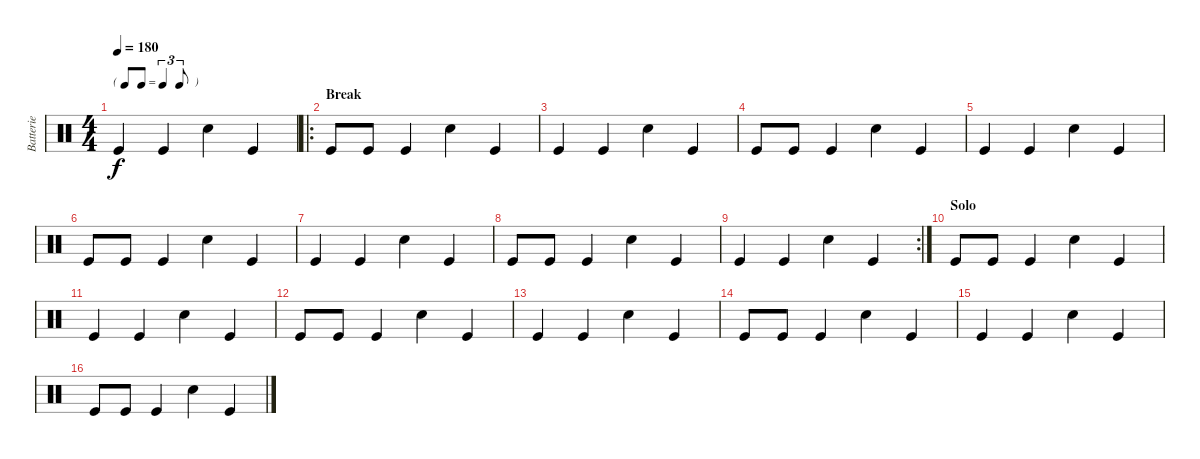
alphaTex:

\track ("Batterie" "Batterie") {instrument percussion}
\staff {score}
\articulation defaults
\ts (4 4)
\tf triplet8th
\tempo 180
\clef neutral
\ks c "Kick (hit)".4{dy f} "Kick (hit)".4 "Electric Snare (hit)".4 "Kick (hit)".4
|
\ro
\section ("" "Break")
"Kick (hit)".8 "Kick (hit)".8 "Kick (hit)".4 "Electric Snare (hit)".4 "Kick (hit)".4 |
"Kick (hit)".4 "Kick (hit)".4 "Electric Snare (hit)".4 "Kick (hit)".4 |
"Kick (hit)".8 "Kick (hit)".8 "Kick (hit)".4 "Electric Snare (hit)".4 "Kick (hit)".4 |
"Kick (hit)".4 "Kick (hit)".4 "Electric Snare (hit)".4 "Kick (hit)".4 |
"Kick (hit)".8 "Kick (hit)".8 "Kick (hit)".4 "Electric Snare (hit)".4 "Kick (hit)".4 |
"Kick (hit)".4 "Kick (hit)".4 "Electric Snare (hit)".4 "Kick (hit)".4 |
"Kick (hit)".8 "Kick (hit)".8 "Kick (hit)".4 "Electric Snare (hit)".4 "Kick (hit)".4 |
\rc 2 "Kick (hit)".4 "Kick (hit)".4 "Electric Snare (hit)".4 "Kick (hit)".4
|
\section ("" "Solo")
"Kick (hit)".8 "Kick (hit)".8 "Kick (hit)".4 "Electric Snare (hit)".4 "Kick (hit)".4 |
"Kick (hit)".4 "Kick (hit)".4 "Electric Snare (hit)".4 "Kick (hit)".4 |
"Kick (hit)".8 "Kick (hit)".8 "Kick (hit)".4 "Electric Snare (hit)".4 "Kick (hit)".4 |
"Kick (hit)".4 "Kick (hit)".4 "Electric Snare (hit)".4 "Kick (hit)".4 |
"Kick (hit)".8 "Kick (hit)".8 "Kick (hit)".4 "Electric Snare (hit)".4 "Kick (hit)".4 |
"Kick (hit)".4 "Kick (hit)".4 "Electric Snare (hit)".4 "Kick (hit)".4 |
"Kick (hit)".8 "Kick (hit)".8 "Kick (hit)".4 "Electric Snare (hit)".4 "Kick (hit)".4
